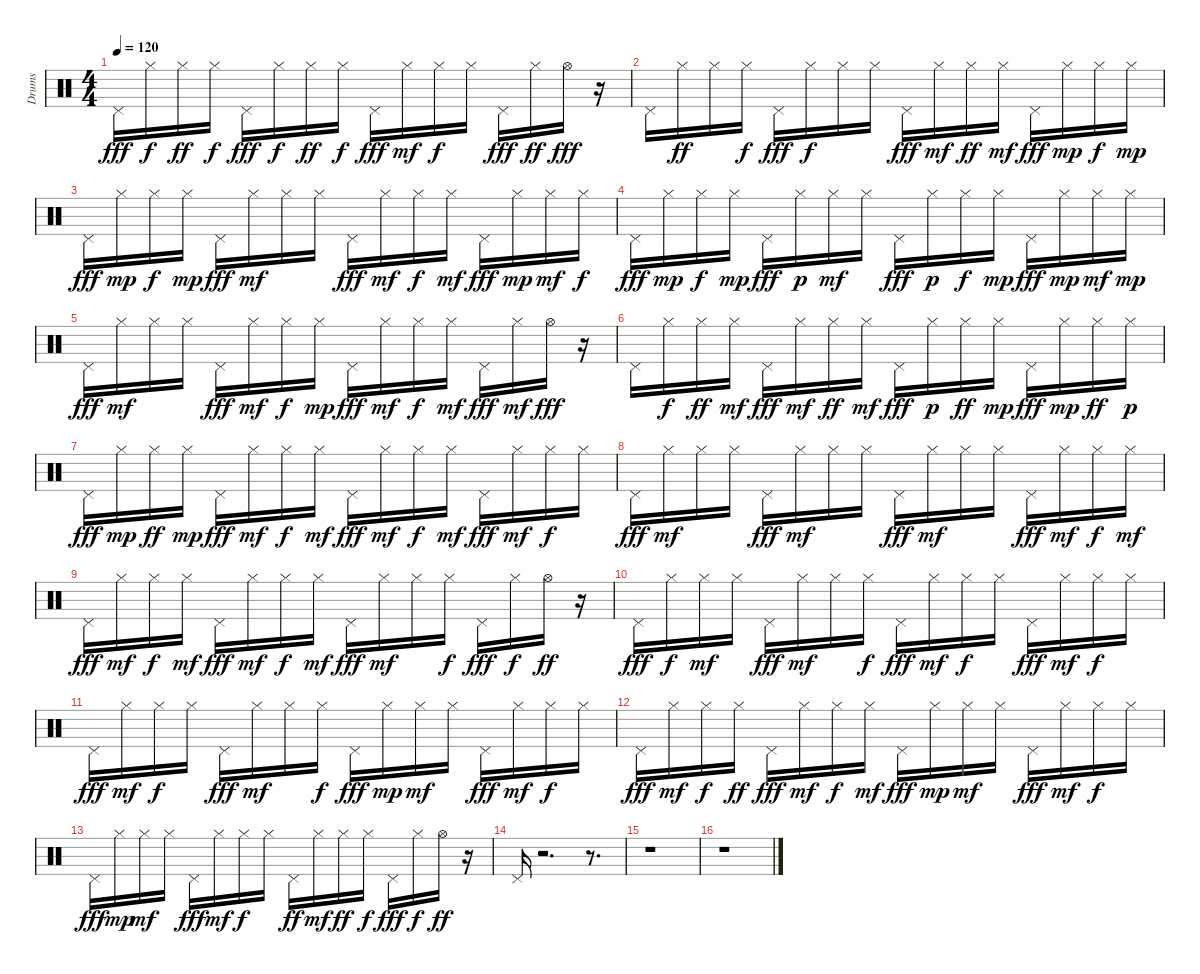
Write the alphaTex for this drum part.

\track ("Drums" "Drums") {instrument percussion}
\staff {score}
\articulation defaults
\ts (4 4)
\tempo 120
\clef neutral
\ks c "Pedal Hi-Hat (hit)".16{dy fff} "Hi-Hat (closed)".16{dy f} "Hi-Hat (closed)".16{dy ff} "Hi-Hat (closed)".16{dy f} "Pedal Hi-Hat (hit)".16{dy fff} "Hi-Hat (closed)".16{dy f} "Hi-Hat (closed)".16{dy ff} "Hi-Hat (closed)".16{dy f} "Pedal Hi-Hat (hit)".16{dy fff} "Hi-Hat (closed)".16{dy mf} "Hi-Hat (closed)".16{dy f} "Hi-Hat (closed)".16 "Pedal Hi-Hat (hit)".16{dy fff} "Hi-Hat (closed)".16{dy ff} "Hi-Hat (open)".16{dy fff}
r.16 |
"Pedal Hi-Hat (hit)".16 "Hi-Hat (closed)".16{dy ff} "Hi-Hat (closed)".16 "Hi-Hat (closed)".16{dy f} "Pedal Hi-Hat (hit)".16{dy fff} "Hi-Hat (closed)".16{dy f} "Hi-Hat (closed)".16 "Hi-Hat (closed)".16 "Pedal Hi-Hat (hit)".16{dy fff} "Hi-Hat (closed)".16{dy mf} "Hi-Hat (closed)".16{dy ff} "Hi-Hat (closed)".16{dy mf} "Pedal Hi-Hat (hit)".16{dy fff} "Hi-Hat (closed)".16{dy mp} "Hi-Hat (closed)".16{dy f} "Hi-Hat (closed)".16{dy mp} |
"Pedal Hi-Hat (hit)".16{dy fff} "Hi-Hat (closed)".16{dy mp} "Hi-Hat (closed)".16{dy f} "Hi-Hat (closed)".16{dy mp} "Pedal Hi-Hat (hit)".16{dy fff} "Hi-Hat (closed)".16{dy mf} "Hi-Hat (closed)".16 "Hi-Hat (closed)".16 "Pedal Hi-Hat (hit)".16{dy fff} "Hi-Hat (closed)".16{dy mf} "Hi-Hat (closed)".16{dy f} "Hi-Hat (closed)".16{dy mf} "Pedal Hi-Hat (hit)".16{dy fff} "Hi-Hat (closed)".16{dy mp} "Hi-Hat (closed)".16{dy mf} "Hi-Hat (closed)".16{dy f} |
"Pedal Hi-Hat (hit)".16{dy fff} "Hi-Hat (closed)".16{dy mp} "Hi-Hat (closed)".16{dy f} "Hi-Hat (closed)".16{dy mp} "Pedal Hi-Hat (hit)".16{dy fff} "Hi-Hat (closed)".16{dy p} "Hi-Hat (closed)".16{dy mf} "Hi-Hat (closed)".16 "Pedal Hi-Hat (hit)".16{dy fff} "Hi-Hat (closed)".16{dy p} "Hi-Hat (closed)".16{dy f} "Hi-Hat (closed)".16{dy mp} "Pedal Hi-Hat (hit)".16{dy fff} "Hi-Hat (closed)".16{dy mp} "Hi-Hat (closed)".16{dy mf} "Hi-Hat (closed)".16{dy mp} |
"Pedal Hi-Hat (hit)".16{dy fff} "Hi-Hat (closed)".16{dy mf} "Hi-Hat (closed)".16 "Hi-Hat (closed)".16 "Pedal Hi-Hat (hit)".16{dy fff} "Hi-Hat (closed)".16{dy mf} "Hi-Hat (closed)".16{dy f} "Hi-Hat (closed)".16{dy mp} "Pedal Hi-Hat (hit)".16{dy fff} "Hi-Hat (closed)".16{dy mf} "Hi-Hat (closed)".16{dy f} "Hi-Hat (closed)".16{dy mf} "Pedal Hi-Hat (hit)".16{dy fff} "Hi-Hat (closed)".16{dy mf} "Hi-Hat (open)".16{dy fff} r.16 |
"Pedal Hi-Hat (hit)".16 "Hi-Hat (closed)".16{dy f} "Hi-Hat (closed)".16{dy ff} "Hi-Hat (closed)".16{dy mf} "Pedal Hi-Hat (hit)".16{dy fff} "Hi-Hat (closed)".16{dy mf} "Hi-Hat (closed)".16{dy ff} "Hi-Hat (closed)".16{dy mf} "Pedal Hi-Hat (hit)".16{dy fff} "Hi-Hat (closed)".16{dy p} "Hi-Hat (closed)".16{dy ff} "Hi-Hat (closed)".16{dy mp} "Pedal Hi-Hat (hit)".16{dy fff} "Hi-Hat (closed)".16{dy mp} "Hi-Hat (closed)".16{dy ff} "Hi-Hat (closed)".16{dy p} |
"Pedal Hi-Hat (hit)".16{dy fff} "Hi-Hat (closed)".16{dy mp} "Hi-Hat (closed)".16{dy ff} "Hi-Hat (closed)".16{dy mp} "Pedal Hi-Hat (hit)".16{dy fff} "Hi-Hat (closed)".16{dy mf} "Hi-Hat (closed)".16{dy f} "Hi-Hat (closed)".16{dy mf} "Pedal Hi-Hat (hit)".16{dy fff} "Hi-Hat (closed)".16{dy mf} "Hi-Hat (closed)".16{dy f} "Hi-Hat (closed)".16{dy mf} "Pedal Hi-Hat (hit)".16{dy fff} "Hi-Hat (closed)".16{dy mf} "Hi-Hat (closed)".16{dy f} "Hi-Hat (closed)".16 |
"Pedal Hi-Hat (hit)".16{dy fff} "Hi-Hat (closed)".16{dy mf} "Hi-Hat (closed)".16 "Hi-Hat (closed)".16 "Pedal Hi-Hat (hit)".16{dy fff} "Hi-Hat (closed)".16{dy mf} "Hi-Hat (closed)".16 "Hi-Hat (closed)".16 "Pedal Hi-Hat (hit)".16{dy fff} "Hi-Hat (closed)".16{dy mf} "Hi-Hat (closed)".16 "Hi-Hat (closed)".16 "Pedal Hi-Hat (hit)".16{dy fff} "Hi-Hat (closed)".16{dy mf} "Hi-Hat (closed)".16{dy f} "Hi-Hat (closed)".16{dy mf} |
"Pedal Hi-Hat (hit)".16{dy fff} "Hi-Hat (closed)".16{dy mf} "Hi-Hat (closed)".16{dy f} "Hi-Hat (closed)".16{dy mf} "Pedal Hi-Hat (hit)".16{dy fff} "Hi-Hat (closed)".16{dy mf} "Hi-Hat (closed)".16{dy f} "Hi-Hat (closed)".16{dy mf} "Pedal Hi-Hat (hit)".16{dy fff} "Hi-Hat (closed)".16{dy mf} "Hi-Hat (closed)".16 "Hi-Hat (closed)".16{dy f} "Pedal Hi-Hat (hit)".16{dy fff} "Hi-Hat (closed)".16{dy f} "Hi-Hat (open)".16{dy ff} r.16 |
"Pedal Hi-Hat (hit)".16{dy fff} "Hi-Hat (closed)".16{dy f} "Hi-Hat (closed)".16{dy mf} "Hi-Hat (closed)".16 "Pedal Hi-Hat (hit)".16{dy fff} "Hi-Hat (closed)".16{dy mf} "Hi-Hat (closed)".16 "Hi-Hat (closed)".16{dy f} "Pedal Hi-Hat (hit)".16{dy fff} "Hi-Hat (closed)".16{dy mf} "Hi-Hat (closed)".16{dy f} "Hi-Hat (closed)".16 "Pedal Hi-Hat (hit)".16{dy fff} "Hi-Hat (closed)".16{dy mf} "Hi-Hat (closed)".16{dy f} "Hi-Hat (closed)".16 |
"Pedal Hi-Hat (hit)".16{dy fff} "Hi-Hat (closed)".16{dy mf} "Hi-Hat (closed)".16{dy f} "Hi-Hat (closed)".16 "Pedal Hi-Hat (hit)".16{dy fff} "Hi-Hat (closed)".16{dy mf} "Hi-Hat (closed)".16 "Hi-Hat (closed)".16{dy f} "Pedal Hi-Hat (hit)".16{dy fff} "Hi-Hat (closed)".16{dy mp} "Hi-Hat (closed)".16{dy mf} "Hi-Hat (closed)".16 "Pedal Hi-Hat (hit)".16{dy fff} "Hi-Hat (closed)".16{dy mf} "Hi-Hat (closed)".16{dy f} "Hi-Hat (closed)".16 |
"Pedal Hi-Hat (hit)".16{dy fff} "Hi-Hat (closed)".16{dy mf} "Hi-Hat (closed)".16{dy f} "Hi-Hat (closed)".16{dy ff} "Pedal Hi-Hat (hit)".16{dy fff} "Hi-Hat (closed)".16{dy mf} "Hi-Hat (closed)".16{dy f} "Hi-Hat (closed)".16{dy mf} "Pedal Hi-Hat (hit)".16{dy fff} "Hi-Hat (closed)".16{dy mp} "Hi-Hat (closed)".16{dy mf} "Hi-Hat (closed)".16 "Pedal Hi-Hat (hit)".16{dy fff} "Hi-Hat (closed)".16{dy mf} "Hi-Hat (closed)".16{dy f} "Hi-Hat (closed)".16 |
"Pedal Hi-Hat (hit)".16{dy fff} "Hi-Hat (closed)".16{dy mp} "Hi-Hat (closed)".16{dy mf} "Hi-Hat (closed)".16 "Pedal Hi-Hat (hit)".16{dy fff} "Hi-Hat (closed)".16{dy mf} "Hi-Hat (closed)".16{dy f} "Hi-Hat (closed)".16 "Pedal Hi-Hat (hit)".16{dy ff} "Hi-Hat (closed)".16{dy mf} "Hi-Hat (closed)".16{dy ff} "Hi-Hat (closed)".16{dy f} "Pedal Hi-Hat (hit)".16{dy fff} "Hi-Hat (closed)".16{dy f} "Hi-Hat (open)".16{dy ff} r.16 |
"Pedal Hi-Hat (hit)".16 r.2{d} r.8{d} |
r.1 |
r.1
